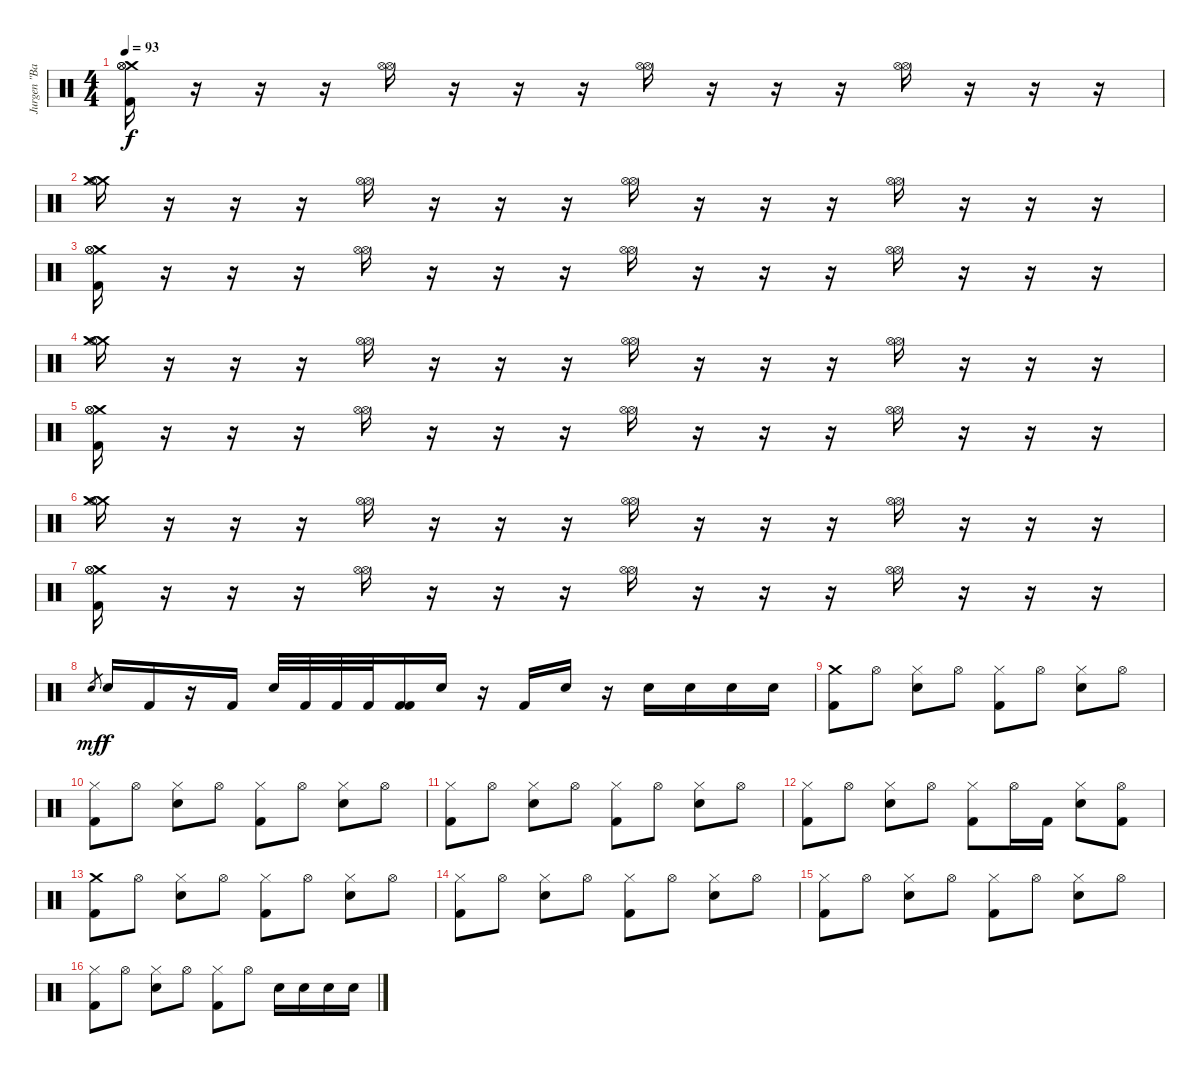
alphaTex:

\track ("Jurgen \"Bam Bam\" Wiehler" "Jurgen \"Ba") {instrument percussion}
\staff {score}
\articulation defaults
\ts (4 4)
\tempo 93
\clef neutral
\ks c
("Crash medium (hit)" "Hi-Hat (open)" "Hi-Hat (open)" "Kick (hit) 2").16{dy f} r.16 r.16 r.16 ("Hi-Hat (open)" "Hi-Hat (open)").16 r.16 r.16 r.16 ("Hi-Hat (open)" "Hi-Hat (open)").16 r.16 r.16 r.16 ("Hi-Hat (open)" "Hi-Hat (open)").16 r.16 r.16 r.16 |
("Crash medium (hit)" "Crash medium (hit)" "Hi-Hat (open)").16 r.16 r.16 r.16 ("Hi-Hat (open)" "Hi-Hat (open)").16 r.16 r.16 r.16 ("Hi-Hat (open)" "Hi-Hat (open)").16 r.16 r.16 r.16 ("Hi-Hat (open)" "Hi-Hat (open)").16 r.16 r.16 r.16 |
("Crash medium (hit)" "Hi-Hat (open)" "Hi-Hat (open)" "Kick (hit) 2").16 r.16 r.16 r.16 ("Hi-Hat (open)" "Hi-Hat (open)").16 r.16 r.16 r.16 ("Hi-Hat (open)" "Hi-Hat (open)").16 r.16 r.16 r.16 ("Hi-Hat (open)" "Hi-Hat (open)").16 r.16 r.16 r.16 |
("Crash medium (hit)" "Crash medium (hit)" "Hi-Hat (open)").16 r.16 r.16 r.16 ("Hi-Hat (open)" "Hi-Hat (open)").16 r.16 r.16 r.16 ("Hi-Hat (open)" "Hi-Hat (open)").16 r.16 r.16 r.16 ("Hi-Hat (open)" "Hi-Hat (open)").16 r.16 r.16 r.16 |
("Crash medium (hit)" "Hi-Hat (open)" "Hi-Hat (open)" "Kick (hit) 2").16 r.16 r.16 r.16 ("Hi-Hat (open)" "Hi-Hat (open)").16 r.16 r.16 r.16 ("Hi-Hat (open)" "Hi-Hat (open)").16 r.16 r.16 r.16 ("Hi-Hat (open)" "Hi-Hat (open)").16 r.16 r.16 r.16 |
("Crash medium (hit)" "Crash medium (hit)" "Hi-Hat (open)").16 r.16 r.16 r.16 ("Hi-Hat (open)" "Hi-Hat (open)").16 r.16 r.16 r.16 ("Hi-Hat (open)" "Hi-Hat (open)").16 r.16 r.16 r.16 ("Hi-Hat (open)" "Hi-Hat (open)").16 r.16 r.16 r.16 |
("Crash medium (hit)" "Hi-Hat (open)" "Hi-Hat (open)" "Kick (hit) 2").16 r.16 r.16 r.16 ("Hi-Hat (open)" "Hi-Hat (open)").16 r.16 r.16 r.16 ("Hi-Hat (open)" "Hi-Hat (open)").16 r.16 r.16 r.16 ("Hi-Hat (open)" "Hi-Hat (open)").16 r.16 r.16 r.16 |
"Electric Snare (hit)".8{gr dy mf} "Electric Snare (hit)".16{dy f} "Kick (hit) 2".16 r.16 "Kick (hit) 2".16 "Electric Snare (hit)".32 "Kick (hit) 2".32 "Kick (hit) 2".32 "Kick (hit) 2".32 ("Kick (hit) 2" "Kick (hit) 2").16 "Electric Snare (hit)".16 r.16 "Kick (hit) 2".16 "Electric Snare (hit)".16 r.16 "Electric Snare (hit)".16 "Electric Snare (hit)".16 "Electric Snare (hit)".16 "Electric Snare (hit)".16 |
("Crash medium (hit)" "Kick (hit) 2").8 "Hi-Hat (open)".8 ("Hi-Hat (closed)" "Electric Snare (hit)").8 "Hi-Hat (open)".8 ("Hi-Hat (closed)" "Kick (hit) 2").8 "Hi-Hat (open)".8 ("Hi-Hat (closed)" "Electric Snare (hit)").8 "Hi-Hat (open)".8 |
("Hi-Hat (closed)" "Kick (hit) 2").8 "Hi-Hat (open)".8 ("Hi-Hat (closed)" "Electric Snare (hit)").8 "Hi-Hat (open)".8 ("Hi-Hat (closed)" "Kick (hit) 2").8 "Hi-Hat (open)".8 ("Hi-Hat (closed)" "Electric Snare (hit)").8 "Hi-Hat (open)".8 |
("Hi-Hat (closed)" "Kick (hit) 2").8 "Hi-Hat (open)".8 ("Hi-Hat (closed)" "Electric Snare (hit)").8 "Hi-Hat (open)".8 ("Hi-Hat (closed)" "Kick (hit) 2").8 "Hi-Hat (open)".8 ("Hi-Hat (closed)" "Electric Snare (hit)").8 "Hi-Hat (open)".8 |
("Hi-Hat (closed)" "Kick (hit) 2").8 "Hi-Hat (open)".8 ("Hi-Hat (closed)" "Electric Snare (hit)").8 "Hi-Hat (open)".8 ("Hi-Hat (closed)" "Kick (hit) 2").8 "Hi-Hat (open)".16 "Kick (hit) 2".16 ("Hi-Hat (closed)" "Electric Snare (hit)").8 ("Hi-Hat (open)" "Kick (hit) 2").8 |
("Crash medium (hit)" "Kick (hit) 2").8 "Hi-Hat (open)".8 ("Hi-Hat (closed)" "Electric Snare (hit)").8 "Hi-Hat (open)".8 ("Hi-Hat (closed)" "Kick (hit) 2").8 "Hi-Hat (open)".8 ("Hi-Hat (closed)" "Electric Snare (hit)").8 "Hi-Hat (open)".8 |
("Hi-Hat (closed)" "Kick (hit) 2").8 "Hi-Hat (open)".8 ("Hi-Hat (closed)" "Electric Snare (hit)").8 "Hi-Hat (open)".8 ("Hi-Hat (closed)" "Kick (hit) 2").8 "Hi-Hat (open)".8 ("Hi-Hat (closed)" "Electric Snare (hit)").8 "Hi-Hat (open)".8 |
("Hi-Hat (closed)" "Kick (hit) 2").8 "Hi-Hat (open)".8 ("Hi-Hat (closed)" "Electric Snare (hit)").8 "Hi-Hat (open)".8 ("Hi-Hat (closed)" "Kick (hit) 2").8 "Hi-Hat (open)".8 ("Hi-Hat (closed)" "Electric Snare (hit)").8 "Hi-Hat (open)".8 |
("Hi-Hat (closed)" "Kick (hit) 2").8 "Hi-Hat (open)".8 ("Hi-Hat (closed)" "Electric Snare (hit)").8 "Hi-Hat (open)".8 ("Hi-Hat (closed)" "Kick (hit) 2").8 "Hi-Hat (open)".8 "Electric Snare (hit)".16 "Electric Snare (hit)".16 "Electric Snare (hit)".16 "Electric Snare (hit)".16
